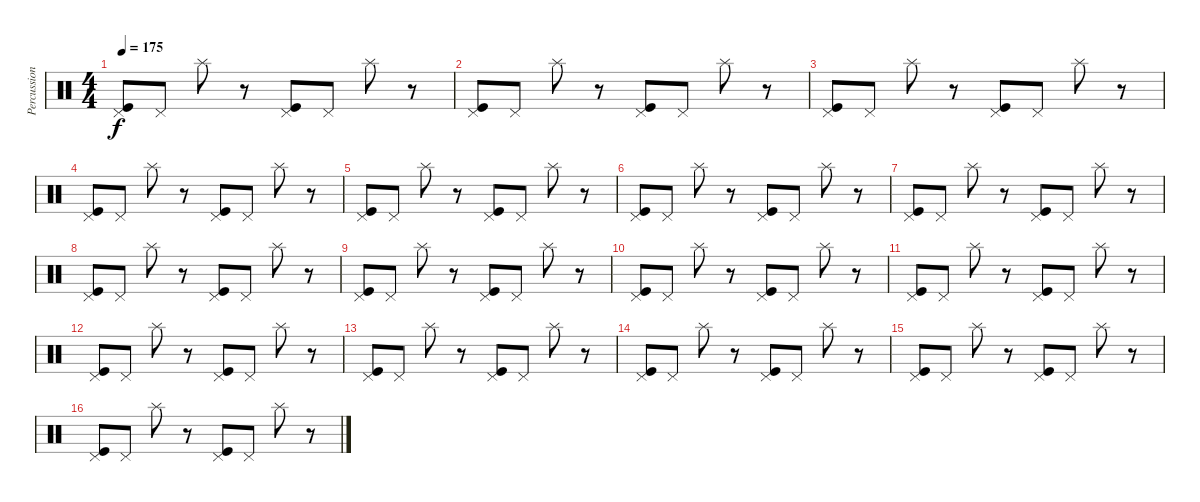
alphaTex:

\track ("Percussions" "Percussion") {instrument percussion}
\staff {score}
\articulation defaults
\ts (4 4)
\tempo 175
\clef neutral
\ks c
("Pedal Hi-Hat (hit)" "Kick (hit)").8{dy f} "Pedal Hi-Hat (hit)".8 "Splash (hit)".8 r.8 ("Pedal Hi-Hat (hit)" "Kick (hit)").8 "Pedal Hi-Hat (hit)".8 "Splash (hit)".8 r.8 |
("Pedal Hi-Hat (hit)" "Kick (hit)").8 "Pedal Hi-Hat (hit)".8 "Splash (hit)".8 r.8 ("Pedal Hi-Hat (hit)" "Kick (hit)").8 "Pedal Hi-Hat (hit)".8 "Splash (hit)".8 r.8 |
("Pedal Hi-Hat (hit)" "Kick (hit)").8 "Pedal Hi-Hat (hit)".8 "Splash (hit)".8 r.8 ("Pedal Hi-Hat (hit)" "Kick (hit)").8 "Pedal Hi-Hat (hit)".8 "Splash (hit)".8 r.8 |
("Pedal Hi-Hat (hit)" "Kick (hit)").8 "Pedal Hi-Hat (hit)".8 "Splash (hit)".8 r.8 ("Pedal Hi-Hat (hit)" "Kick (hit)").8 "Pedal Hi-Hat (hit)".8 "Splash (hit)".8 r.8 |
("Pedal Hi-Hat (hit)" "Kick (hit)").8 "Pedal Hi-Hat (hit)".8 "Splash (hit)".8 r.8 ("Pedal Hi-Hat (hit)" "Kick (hit)").8 "Pedal Hi-Hat (hit)".8 "Splash (hit)".8 r.8 |
("Pedal Hi-Hat (hit)" "Kick (hit)").8 "Pedal Hi-Hat (hit)".8 "Splash (hit)".8 r.8 ("Pedal Hi-Hat (hit)" "Kick (hit)").8 "Pedal Hi-Hat (hit)".8 "Splash (hit)".8 r.8 |
("Pedal Hi-Hat (hit)" "Kick (hit)").8 "Pedal Hi-Hat (hit)".8 "Splash (hit)".8 r.8 ("Pedal Hi-Hat (hit)" "Kick (hit)").8 "Pedal Hi-Hat (hit)".8 "Splash (hit)".8 r.8 |
("Pedal Hi-Hat (hit)" "Kick (hit)").8 "Pedal Hi-Hat (hit)".8 "Splash (hit)".8 r.8 ("Pedal Hi-Hat (hit)" "Kick (hit)").8 "Pedal Hi-Hat (hit)".8 "Splash (hit)".8 r.8 |
("Pedal Hi-Hat (hit)" "Kick (hit)").8 "Pedal Hi-Hat (hit)".8 "Splash (hit)".8 r.8 ("Pedal Hi-Hat (hit)" "Kick (hit)").8 "Pedal Hi-Hat (hit)".8 "Splash (hit)".8 r.8 |
("Pedal Hi-Hat (hit)" "Kick (hit)").8 "Pedal Hi-Hat (hit)".8 "Splash (hit)".8 r.8 ("Pedal Hi-Hat (hit)" "Kick (hit)").8 "Pedal Hi-Hat (hit)".8 "Splash (hit)".8 r.8 |
("Pedal Hi-Hat (hit)" "Kick (hit)").8 "Pedal Hi-Hat (hit)".8 "Splash (hit)".8 r.8 ("Pedal Hi-Hat (hit)" "Kick (hit)").8 "Pedal Hi-Hat (hit)".8 "Splash (hit)".8 r.8 |
("Pedal Hi-Hat (hit)" "Kick (hit)").8 "Pedal Hi-Hat (hit)".8 "Splash (hit)".8 r.8 ("Pedal Hi-Hat (hit)" "Kick (hit)").8 "Pedal Hi-Hat (hit)".8 "Splash (hit)".8 r.8 |
("Pedal Hi-Hat (hit)" "Kick (hit)").8 "Pedal Hi-Hat (hit)".8 "Splash (hit)".8 r.8 ("Pedal Hi-Hat (hit)" "Kick (hit)").8 "Pedal Hi-Hat (hit)".8 "Splash (hit)".8 r.8 |
("Pedal Hi-Hat (hit)" "Kick (hit)").8 "Pedal Hi-Hat (hit)".8 "Splash (hit)".8 r.8 ("Pedal Hi-Hat (hit)" "Kick (hit)").8 "Pedal Hi-Hat (hit)".8 "Splash (hit)".8 r.8 |
("Pedal Hi-Hat (hit)" "Kick (hit)").8 "Pedal Hi-Hat (hit)".8 "Splash (hit)".8 r.8 ("Pedal Hi-Hat (hit)" "Kick (hit)").8 "Pedal Hi-Hat (hit)".8 "Splash (hit)".8 r.8 |
("Pedal Hi-Hat (hit)" "Kick (hit)").8 "Pedal Hi-Hat (hit)".8 "Splash (hit)".8 r.8 ("Pedal Hi-Hat (hit)" "Kick (hit)").8 "Pedal Hi-Hat (hit)".8 "Splash (hit)".8 r.8
